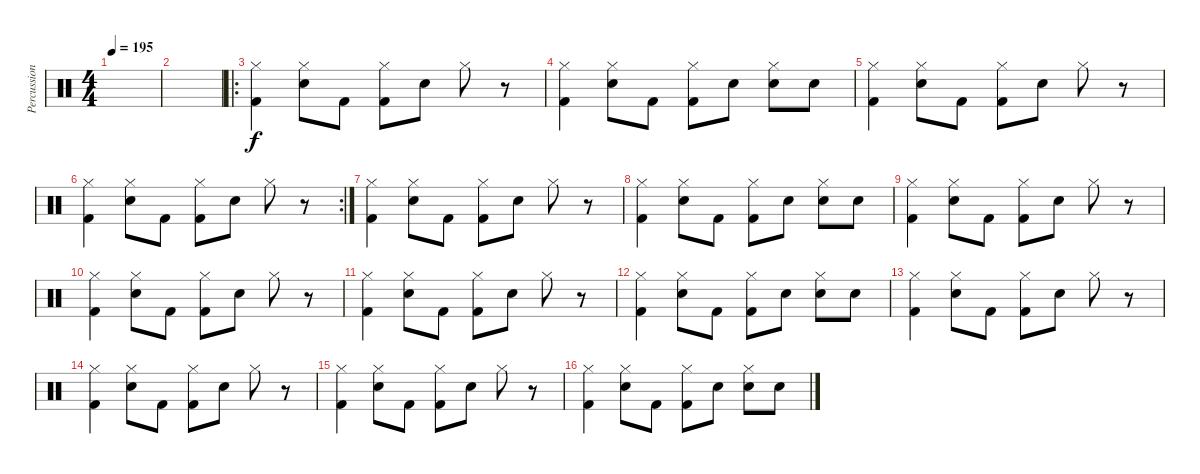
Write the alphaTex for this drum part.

\track ("Percussion" "Percussion") {instrument percussion}
\staff {score}
\articulation defaults
\ts (4 4)
\tempo 195
\clef neutral
\ks c
|
|
\ro
("Hi-Hat (closed)" "Kick (hit) 2").4 ("Hi-Hat (closed)" "Snare (hit) 2").8 "Kick (hit) 2".8 ("Hi-Hat (closed)" "Kick (hit) 2").8 "Snare (hit) 2".8 "Hi-Hat (closed)".8 r.8 |
("Hi-Hat (closed)" "Kick (hit) 2").4 ("Hi-Hat (closed)" "Snare (hit) 2").8 "Kick (hit) 2".8 ("Hi-Hat (closed)" "Kick (hit) 2").8 "Snare (hit) 2".8 ("Hi-Hat (closed)" "Snare (hit) 2").8 "Snare (hit) 2".8 |
("Hi-Hat (closed)" "Kick (hit) 2").4 ("Hi-Hat (closed)" "Snare (hit) 2").8 "Kick (hit) 2".8 ("Hi-Hat (closed)" "Kick (hit) 2").8 "Snare (hit) 2".8 "Hi-Hat (closed)".8 r.8 |
\rc 2
("Hi-Hat (closed)" "Kick (hit) 2").4 ("Hi-Hat (closed)" "Snare (hit) 2").8 "Kick (hit) 2".8 ("Hi-Hat (closed)" "Kick (hit) 2").8 "Snare (hit) 2".8 "Hi-Hat (closed)".8 r.8 |
("Hi-Hat (closed)" "Kick (hit) 2").4 ("Hi-Hat (closed)" "Snare (hit) 2").8 "Kick (hit) 2".8 ("Hi-Hat (closed)" "Kick (hit) 2").8 "Snare (hit) 2".8 "Hi-Hat (closed)".8 r.8 |
("Hi-Hat (closed)" "Kick (hit) 2").4 ("Hi-Hat (closed)" "Snare (hit) 2").8 "Kick (hit) 2".8 ("Hi-Hat (closed)" "Kick (hit) 2").8 "Snare (hit) 2".8 ("Hi-Hat (closed)" "Snare (hit) 2").8 "Snare (hit) 2".8 |
("Hi-Hat (closed)" "Kick (hit) 2").4 ("Hi-Hat (closed)" "Snare (hit) 2").8 "Kick (hit) 2".8 ("Hi-Hat (closed)" "Kick (hit) 2").8 "Snare (hit) 2".8 "Hi-Hat (closed)".8 r.8 |
("Hi-Hat (closed)" "Kick (hit) 2").4 ("Hi-Hat (closed)" "Snare (hit) 2").8 "Kick (hit) 2".8 ("Hi-Hat (closed)" "Kick (hit) 2").8 "Snare (hit) 2".8 "Hi-Hat (closed)".8 r.8 |
("Hi-Hat (closed)" "Kick (hit) 2").4 ("Hi-Hat (closed)" "Snare (hit) 2").8 "Kick (hit) 2".8 ("Hi-Hat (closed)" "Kick (hit) 2").8 "Snare (hit) 2".8 "Hi-Hat (closed)".8 r.8 |
("Hi-Hat (closed)" "Kick (hit) 2").4 ("Hi-Hat (closed)" "Snare (hit) 2").8 "Kick (hit) 2".8 ("Hi-Hat (closed)" "Kick (hit) 2").8 "Snare (hit) 2".8 ("Hi-Hat (closed)" "Snare (hit) 2").8 "Snare (hit) 2".8 |
("Hi-Hat (closed)" "Kick (hit) 2").4 ("Hi-Hat (closed)" "Snare (hit) 2").8 "Kick (hit) 2".8 ("Hi-Hat (closed)" "Kick (hit) 2").8 "Snare (hit) 2".8 "Hi-Hat (closed)".8 r.8 |
("Hi-Hat (closed)" "Kick (hit) 2").4 ("Hi-Hat (closed)" "Snare (hit) 2").8 "Kick (hit) 2".8 ("Hi-Hat (closed)" "Kick (hit) 2").8 "Snare (hit) 2".8 "Hi-Hat (closed)".8 r.8 |
("Hi-Hat (closed)" "Kick (hit) 2").4 ("Hi-Hat (closed)" "Snare (hit) 2").8 "Kick (hit) 2".8 ("Hi-Hat (closed)" "Kick (hit) 2").8 "Snare (hit) 2".8 "Hi-Hat (closed)".8 r.8 |
("Hi-Hat (closed)" "Kick (hit) 2").4 ("Hi-Hat (closed)" "Snare (hit) 2").8 "Kick (hit) 2".8 ("Hi-Hat (closed)" "Kick (hit) 2").8 "Snare (hit) 2".8 ("Hi-Hat (closed)" "Snare (hit) 2").8 "Snare (hit) 2".8
